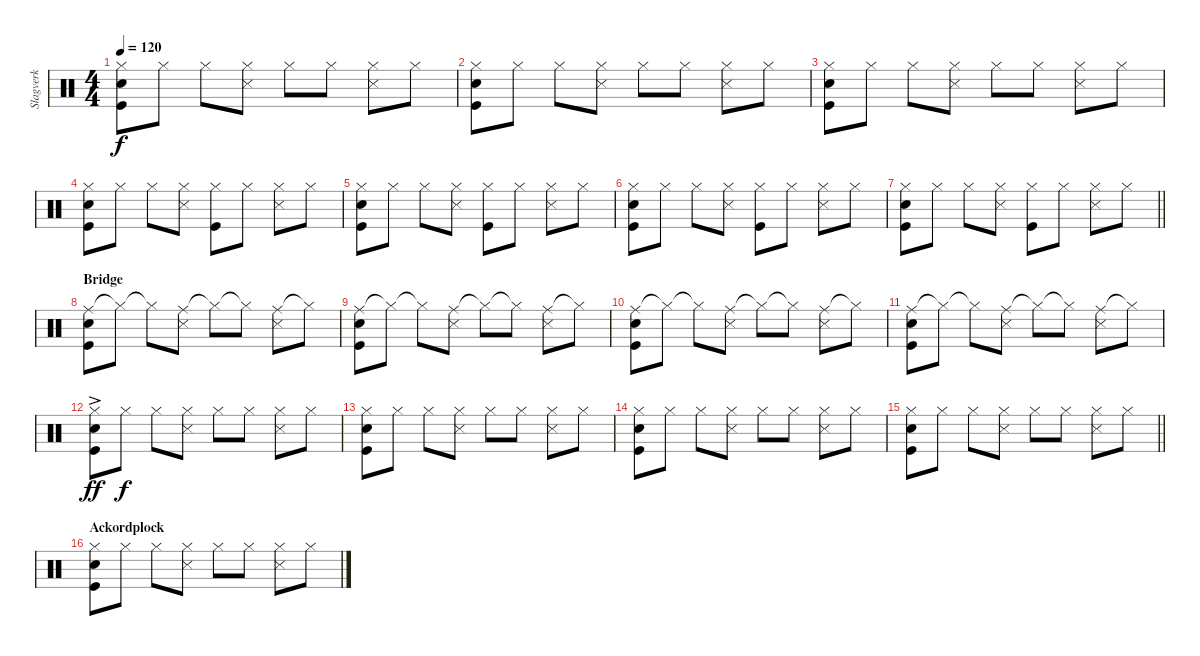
\track ("Slagverk" "Slagverk") {instrument percussion}
\staff {score}
\articulation defaults
\ts (4 4)
\tempo 120
\clef neutral
\ks aminor
("Hi-Hat (closed)" "Snare (hit) 2" "Kick (hit)").8{dy f} "Hi-Hat (closed)".8 "Hi-Hat (closed)".8 ("Hi-Hat (closed)" "Snare (side stick) 3").8 "Hi-Hat (closed)".8 "Hi-Hat (closed)".8 ("Hi-Hat (closed)" "Snare (side stick) 3").8 "Hi-Hat (closed)".8 |
("Hi-Hat (closed)" "Snare (hit) 2" "Kick (hit)").8 "Hi-Hat (closed)".8 "Hi-Hat (closed)".8 ("Hi-Hat (closed)" "Snare (side stick) 3").8 "Hi-Hat (closed)".8 "Hi-Hat (closed)".8 ("Hi-Hat (closed)" "Snare (side stick) 3").8 "Hi-Hat (closed)".8 |
("Hi-Hat (closed)" "Snare (hit) 2" "Kick (hit)").8 "Hi-Hat (closed)".8 "Hi-Hat (closed)".8 ("Hi-Hat (closed)" "Snare (side stick) 3").8 "Hi-Hat (closed)".8 "Hi-Hat (closed)".8 ("Hi-Hat (closed)" "Snare (side stick) 3").8 "Hi-Hat (closed)".8 |
("Hi-Hat (closed)" "Snare (hit) 2" "Kick (hit)").8 "Hi-Hat (closed)".8 "Hi-Hat (closed)".8 ("Hi-Hat (closed)" "Snare (side stick) 3").8 ("Hi-Hat (closed)" "Kick (hit)").8 "Hi-Hat (closed)".8 ("Hi-Hat (closed)" "Snare (side stick) 3").8 "Hi-Hat (closed)".8 |
("Hi-Hat (closed)" "Snare (hit) 2" "Kick (hit)").8 "Hi-Hat (closed)".8 "Hi-Hat (closed)".8 ("Hi-Hat (closed)" "Snare (side stick) 3").8 ("Hi-Hat (closed)" "Kick (hit)").8 "Hi-Hat (closed)".8 ("Hi-Hat (closed)" "Snare (side stick) 3").8 "Hi-Hat (closed)".8 |
("Hi-Hat (closed)" "Snare (hit) 2" "Kick (hit)").8 "Hi-Hat (closed)".8 "Hi-Hat (closed)".8 ("Hi-Hat (closed)" "Snare (side stick) 3").8 ("Hi-Hat (closed)" "Kick (hit)").8 "Hi-Hat (closed)".8 ("Hi-Hat (closed)" "Snare (side stick) 3").8 "Hi-Hat (closed)".8 |
\barLineRight lightlight
("Hi-Hat (closed)" "Snare (hit) 2" "Kick (hit)").8 "Hi-Hat (closed)".8 "Hi-Hat (closed)".8 ("Hi-Hat (closed)" "Snare (side stick) 3").8 ("Hi-Hat (closed)" "Kick (hit)").8 "Hi-Hat (closed)".8 ("Hi-Hat (closed)" "Snare (side stick) 3").8 "Hi-Hat (closed)".8 |
\section ("" "Bridge")
("Ride (middle)" "Snare (hit) 2" "Kick (hit)").8 "Hi-Hat (closed)"{t}.8 "Hi-Hat (closed)"{t}.8 ("Ride (middle)" "Snare (side stick) 3").8 "Hi-Hat (closed)"{t}.8 "Hi-Hat (closed)"{t}.8 ("Ride (middle)" "Snare (side stick) 3").8 "Hi-Hat (closed)"{t}.8 |
("Ride (middle)" "Snare (hit) 2" "Kick (hit)").8 "Hi-Hat (closed)"{t}.8 "Hi-Hat (closed)"{t}.8 ("Ride (middle)" "Snare (side stick) 3").8 "Hi-Hat (closed)"{t}.8 "Hi-Hat (closed)"{t}.8 ("Ride (middle)" "Snare (side stick) 3").8 "Hi-Hat (closed)"{t}.8 |
("Ride (middle)" "Snare (hit) 2" "Kick (hit)").8 "Hi-Hat (closed)"{t}.8 "Hi-Hat (closed)"{t}.8 ("Ride (middle)" "Snare (side stick) 3").8 "Hi-Hat (closed)"{t}.8 "Hi-Hat (closed)"{t}.8 ("Ride (middle)" "Snare (side stick) 3").8 "Hi-Hat (closed)"{t}.8 |
("Ride (middle)" "Snare (hit) 2" "Kick (hit)").8 "Hi-Hat (closed)"{t}.8 "Hi-Hat (closed)"{t}.8 ("Ride (middle)" "Snare (side stick) 3").8 "Hi-Hat (closed)"{t}.8 "Hi-Hat (closed)"{t}.8 ("Ride (middle)" "Snare (side stick) 3").8 "Hi-Hat (closed)"{t}.8 |
("Hi-Hat (closed)" "Snare (hit) 2" "Kick (hit)"{ac}).8{dy ff} "Hi-Hat (closed)".8{dy f} "Hi-Hat (closed)".8 ("Hi-Hat (closed)" "Snare (side stick) 3").8 "Hi-Hat (closed)".8 "Hi-Hat (closed)".8 ("Hi-Hat (closed)" "Snare (side stick) 3").8 "Hi-Hat (closed)".8 |
("Hi-Hat (closed)" "Snare (hit) 2" "Kick (hit)").8 "Hi-Hat (closed)".8 "Hi-Hat (closed)".8 ("Hi-Hat (closed)" "Snare (side stick) 3").8 "Hi-Hat (closed)".8 "Hi-Hat (closed)".8 ("Hi-Hat (closed)" "Snare (side stick) 3").8 "Hi-Hat (closed)".8 |
("Hi-Hat (closed)" "Snare (hit) 2" "Kick (hit)").8 "Hi-Hat (closed)".8 "Hi-Hat (closed)".8 ("Hi-Hat (closed)" "Snare (side stick) 3").8 "Hi-Hat (closed)".8 "Hi-Hat (closed)".8 ("Hi-Hat (closed)" "Snare (side stick) 3").8 "Hi-Hat (closed)".8 |
\barLineRight lightlight
("Hi-Hat (closed)" "Snare (hit) 2" "Kick (hit)").8 "Hi-Hat (closed)".8 "Hi-Hat (closed)".8 ("Hi-Hat (closed)" "Snare (side stick) 3").8 "Hi-Hat (closed)".8 "Hi-Hat (closed)".8 ("Hi-Hat (closed)" "Snare (side stick) 3").8 "Hi-Hat (closed)".8 |
\section ("" "Ackordplock")
("Hi-Hat (closed)" "Snare (hit) 2" "Kick (hit)").8 "Hi-Hat (closed)".8 "Hi-Hat (closed)".8 ("Hi-Hat (closed)" "Snare (side stick) 3").8 "Hi-Hat (closed)".8 "Hi-Hat (closed)".8 ("Hi-Hat (closed)" "Snare (side stick) 3").8 "Hi-Hat (closed)".8
